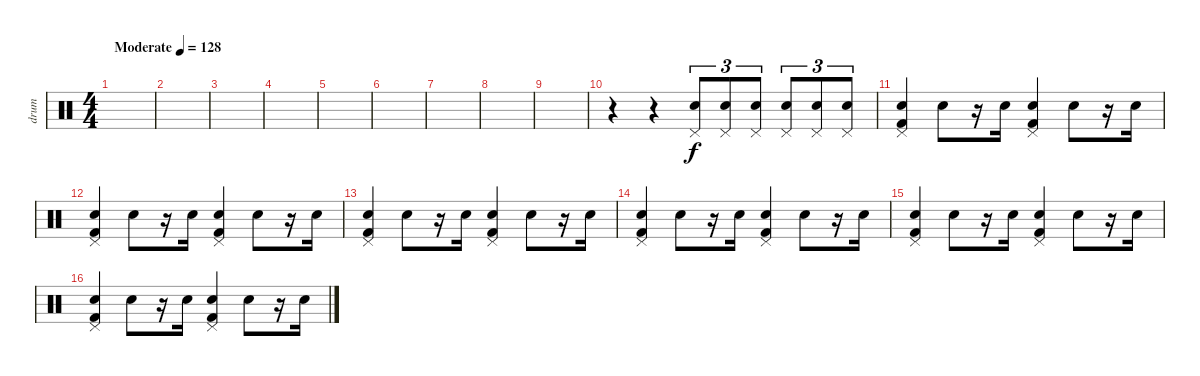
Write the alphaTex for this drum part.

\track ("drum" "drum") {instrument percussion}
\staff {score}
\articulation defaults
\ts (4 4)
\tempo (128 "Moderate")
\clef neutral
\ks c
|
|
|
|
|
|
|
|
|
r.4 r.4 ("Pedal Hi-Hat (hit)" "Electric Snare (hit)").8{tu (3 2)} ("Pedal Hi-Hat (hit)" "Electric Snare (hit)").8{tu (3 2)} ("Pedal Hi-Hat (hit)" "Electric Snare (hit)").8{tu (3 2)} ("Pedal Hi-Hat (hit)" "Electric Snare (hit)").8{tu (3 2)} ("Pedal Hi-Hat (hit)" "Electric Snare (hit)").8{tu (3 2)} ("Pedal Hi-Hat (hit)" "Electric Snare (hit)").8{tu (3 2)} |
("Pedal Hi-Hat (hit)" "Kick (hit) 2" "Electric Snare (hit)").4 "Electric Snare (hit)".8 r.16 "Electric Snare (hit)".16 ("Pedal Hi-Hat (hit)" "Kick (hit) 2" "Electric Snare (hit)").4 "Electric Snare (hit)".8 r.16 "Electric Snare (hit)".16 |
("Pedal Hi-Hat (hit)" "Kick (hit) 2" "Electric Snare (hit)").4 "Electric Snare (hit)".8 r.16 "Electric Snare (hit)".16 ("Pedal Hi-Hat (hit)" "Kick (hit) 2" "Electric Snare (hit)").4 "Electric Snare (hit)".8 r.16 "Electric Snare (hit)".16 |
("Pedal Hi-Hat (hit)" "Kick (hit) 2" "Electric Snare (hit)").4 "Electric Snare (hit)".8 r.16 "Electric Snare (hit)".16 ("Pedal Hi-Hat (hit)" "Kick (hit) 2" "Electric Snare (hit)").4 "Electric Snare (hit)".8 r.16 "Electric Snare (hit)".16 |
("Pedal Hi-Hat (hit)" "Kick (hit) 2" "Electric Snare (hit)").4 "Electric Snare (hit)".8 r.16 "Electric Snare (hit)".16 ("Pedal Hi-Hat (hit)" "Kick (hit) 2" "Electric Snare (hit)").4 "Electric Snare (hit)".8 r.16 "Electric Snare (hit)".16 |
("Pedal Hi-Hat (hit)" "Kick (hit) 2" "Electric Snare (hit)").4 "Electric Snare (hit)".8 r.16 "Electric Snare (hit)".16 ("Pedal Hi-Hat (hit)" "Kick (hit) 2" "Electric Snare (hit)").4 "Electric Snare (hit)".8 r.16 "Electric Snare (hit)".16 |
("Pedal Hi-Hat (hit)" "Kick (hit) 2" "Electric Snare (hit)").4 "Electric Snare (hit)".8 r.16 "Electric Snare (hit)".16 ("Pedal Hi-Hat (hit)" "Kick (hit) 2" "Electric Snare (hit)").4 "Electric Snare (hit)".8 r.16 "Electric Snare (hit)".16
